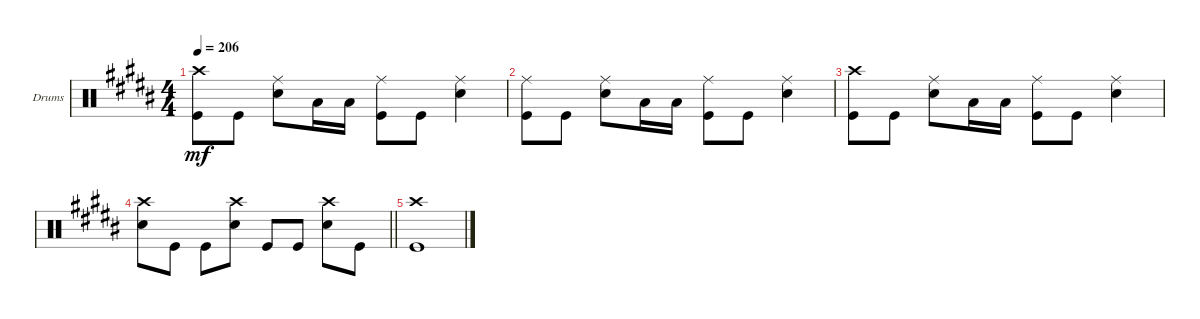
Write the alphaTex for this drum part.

\defaultSystemsLayout 4
\bracketExtendMode groupsimilarinstruments
\firstSystemTrackNameOrientation horizontal
\otherSystemsTrackNameOrientation horizontal
\track ("Drums" "Drums") {instrument percussion}
\staff {score}
\articulation defaults
\ts (4 4)
\tempo 206
\clef neutral
\ks b
("Kick (hit)" "Crash high (hit)").8{dy mf} "Kick (hit)".8 ("Snare (hit) 2" "Ride (middle)").8 "Low Tom (hit)".16 "Low Tom (hit)".16 ("Kick (hit)" "Ride (middle)").8 "Kick (hit)".8 ("Snare (hit) 2" "Ride (middle)").4 |
("Kick (hit)" "Ride (middle)").8 "Kick (hit)".8 ("Snare (hit) 2" "Ride (middle)").8 "Low Tom (hit)".16 "Low Tom (hit)".16 ("Kick (hit)" "Ride (middle)").8 "Kick (hit)".8 ("Snare (hit) 2" "Ride (middle)").4 |
("Kick (hit)" "Crash high (hit)").8 "Kick (hit)".8 ("Snare (hit) 2" "Ride (middle)").8 "Low Tom (hit)".16 "Low Tom (hit)".16 ("Kick (hit)" "Ride (middle)").8 "Kick (hit)".8 ("Snare (hit) 2" "Ride (middle)").4 |
\barLineRight lightlight
("Snare (hit) 2" "Crash high (hit)").8 "Kick (hit)".8 "Kick (hit)".8 ("Snare (hit) 2" "Crash high (hit)").8 "Kick (hit)".8 "Kick (hit)".8 ("Snare (hit) 2" "Crash high (hit)").8 "Kick (hit)".8 |
("Kick (hit)" "Crash high (hit)").1
